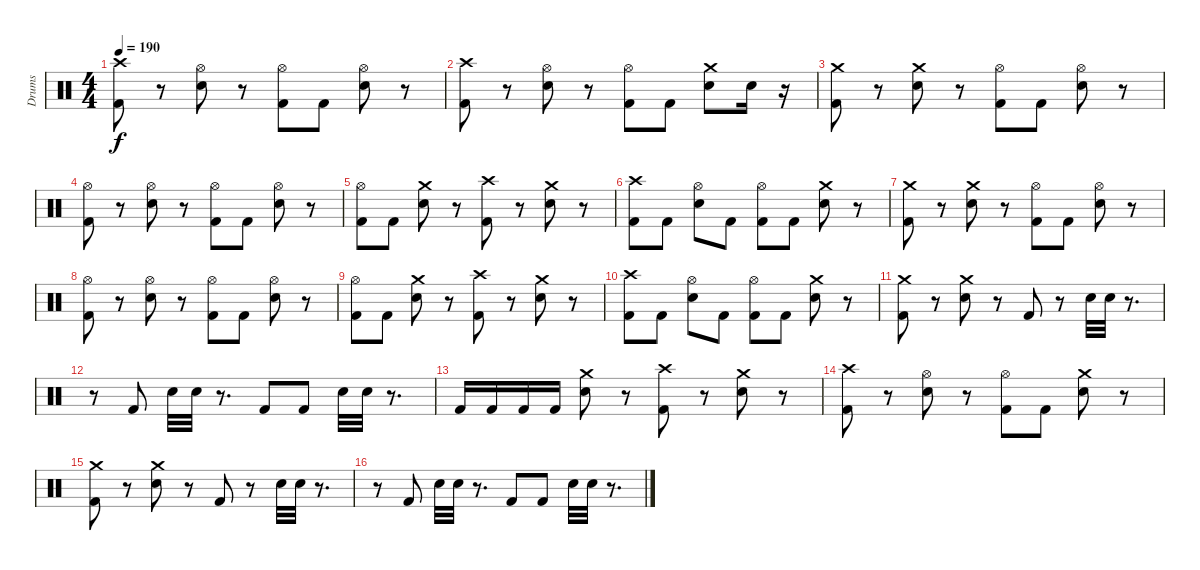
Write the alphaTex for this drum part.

\track ("Drums" "Drums") {instrument percussion}
\staff {score}
\articulation defaults
\ts (4 4)
\tempo 190
\clef neutral
\ks c
("Kick (hit) 2" "Crash high (hit)").8{dy f} r.8 ("Electric Snare (hit)" "Hi-Hat (open)").8 r.8 ("Kick (hit) 2" "Hi-Hat (open)").8 "Kick (hit) 2".8 ("Electric Snare (hit)" "Hi-Hat (open)").8 r.8 |
("Kick (hit) 2" "Crash high (hit)").8 r.8 ("Electric Snare (hit)" "Hi-Hat (open)").8 r.8 ("Kick (hit) 2" "Hi-Hat (open)").8 "Kick (hit) 2".8 ("Electric Snare (hit)" "Crash medium (hit)").8 "Electric Snare (hit)".16 r.16 |
("Kick (hit) 2" "Crash medium (hit)").8 r.8 ("Electric Snare (hit)" "Crash medium (hit)").8 r.8 ("Hi-Hat (open)" "Kick (hit) 2").8 "Kick (hit) 2".8 ("Hi-Hat (open)" "Electric Snare (hit)").8 r.8 |
("Hi-Hat (open)" "Kick (hit) 2").8 r.8 ("Hi-Hat (open)" "Electric Snare (hit)").8 r.8 ("Hi-Hat (open)" "Kick (hit) 2").8 "Kick (hit) 2".8 ("Hi-Hat (open)" "Electric Snare (hit)").8 r.8 |
("Kick (hit) 2" "Hi-Hat (open)").8 "Kick (hit) 2".8 ("Electric Snare (hit)" "Crash medium (hit)").8 r.8 ("Kick (hit) 2" "Crash high (hit)").8 r.8 ("Electric Snare (hit)" "Crash medium (hit)").8 r.8 |
("Kick (hit) 2" "Crash high (hit)").8 "Kick (hit) 2".8 ("Electric Snare (hit)" "Hi-Hat (open)").8 "Kick (hit) 2".8 ("Kick (hit) 2" "Hi-Hat (open)").8 "Kick (hit) 2".8 ("Electric Snare (hit)" "Crash medium (hit)").8 r.8 |
("Kick (hit) 2" "Crash medium (hit)").8 r.8 ("Electric Snare (hit)" "Crash medium (hit)").8 r.8 ("Hi-Hat (open)" "Kick (hit) 2").8 "Kick (hit) 2".8 ("Hi-Hat (open)" "Electric Snare (hit)").8 r.8 |
("Hi-Hat (open)" "Kick (hit) 2").8 r.8 ("Hi-Hat (open)" "Electric Snare (hit)").8 r.8 ("Hi-Hat (open)" "Kick (hit) 2").8 "Kick (hit) 2".8 ("Hi-Hat (open)" "Electric Snare (hit)").8 r.8 |
("Kick (hit) 2" "Hi-Hat (open)").8 "Kick (hit) 2".8 ("Electric Snare (hit)" "Crash medium (hit)").8 r.8 ("Kick (hit) 2" "Crash high (hit)").8 r.8 ("Electric Snare (hit)" "Crash medium (hit)").8 r.8 |
("Kick (hit) 2" "Crash high (hit)").8 "Kick (hit) 2".8 ("Electric Snare (hit)" "Hi-Hat (open)").8 "Kick (hit) 2".8 ("Kick (hit) 2" "Hi-Hat (open)").8 "Kick (hit) 2".8 ("Electric Snare (hit)" "Crash medium (hit)").8 r.8 |
("Kick (hit) 2" "Crash medium (hit)").8 r.8 ("Electric Snare (hit)" "Crash medium (hit)").8 r.8 "Kick (hit) 2".8 r.8 "Electric Snare (hit)".32 "Electric Snare (hit)".32 r.8{d} |
r.8 "Kick (hit) 2".8 "Electric Snare (hit)".32 "Electric Snare (hit)".32 r.8{d} "Kick (hit) 2".8 "Kick (hit) 2".8 "Electric Snare (hit)".32 "Electric Snare (hit)".32 r.8{d} |
"Kick (hit) 2".16 "Kick (hit) 2".16 "Kick (hit) 2".16 "Kick (hit) 2".16 ("Electric Snare (hit)" "Crash medium (hit)").8 r.8 ("Kick (hit) 2" "Crash high (hit)").8 r.8 ("Electric Snare (hit)" "Crash medium (hit)").8 r.8 |
("Kick (hit) 2" "Crash high (hit)").8 r.8 ("Electric Snare (hit)" "Hi-Hat (open)").8 r.8 ("Kick (hit) 2" "Hi-Hat (open)").8 "Kick (hit) 2".8 ("Electric Snare (hit)" "Crash medium (hit)").8 r.8 |
("Kick (hit) 2" "Crash medium (hit)").8 r.8 ("Electric Snare (hit)" "Crash medium (hit)").8 r.8 "Kick (hit) 2".8 r.8 "Electric Snare (hit)".32 "Electric Snare (hit)".32 r.8{d} |
r.8 "Kick (hit) 2".8 "Electric Snare (hit)".32 "Electric Snare (hit)".32 r.8{d} "Kick (hit) 2".8 "Kick (hit) 2".8 "Electric Snare (hit)".32 "Electric Snare (hit)".32 r.8{d}
